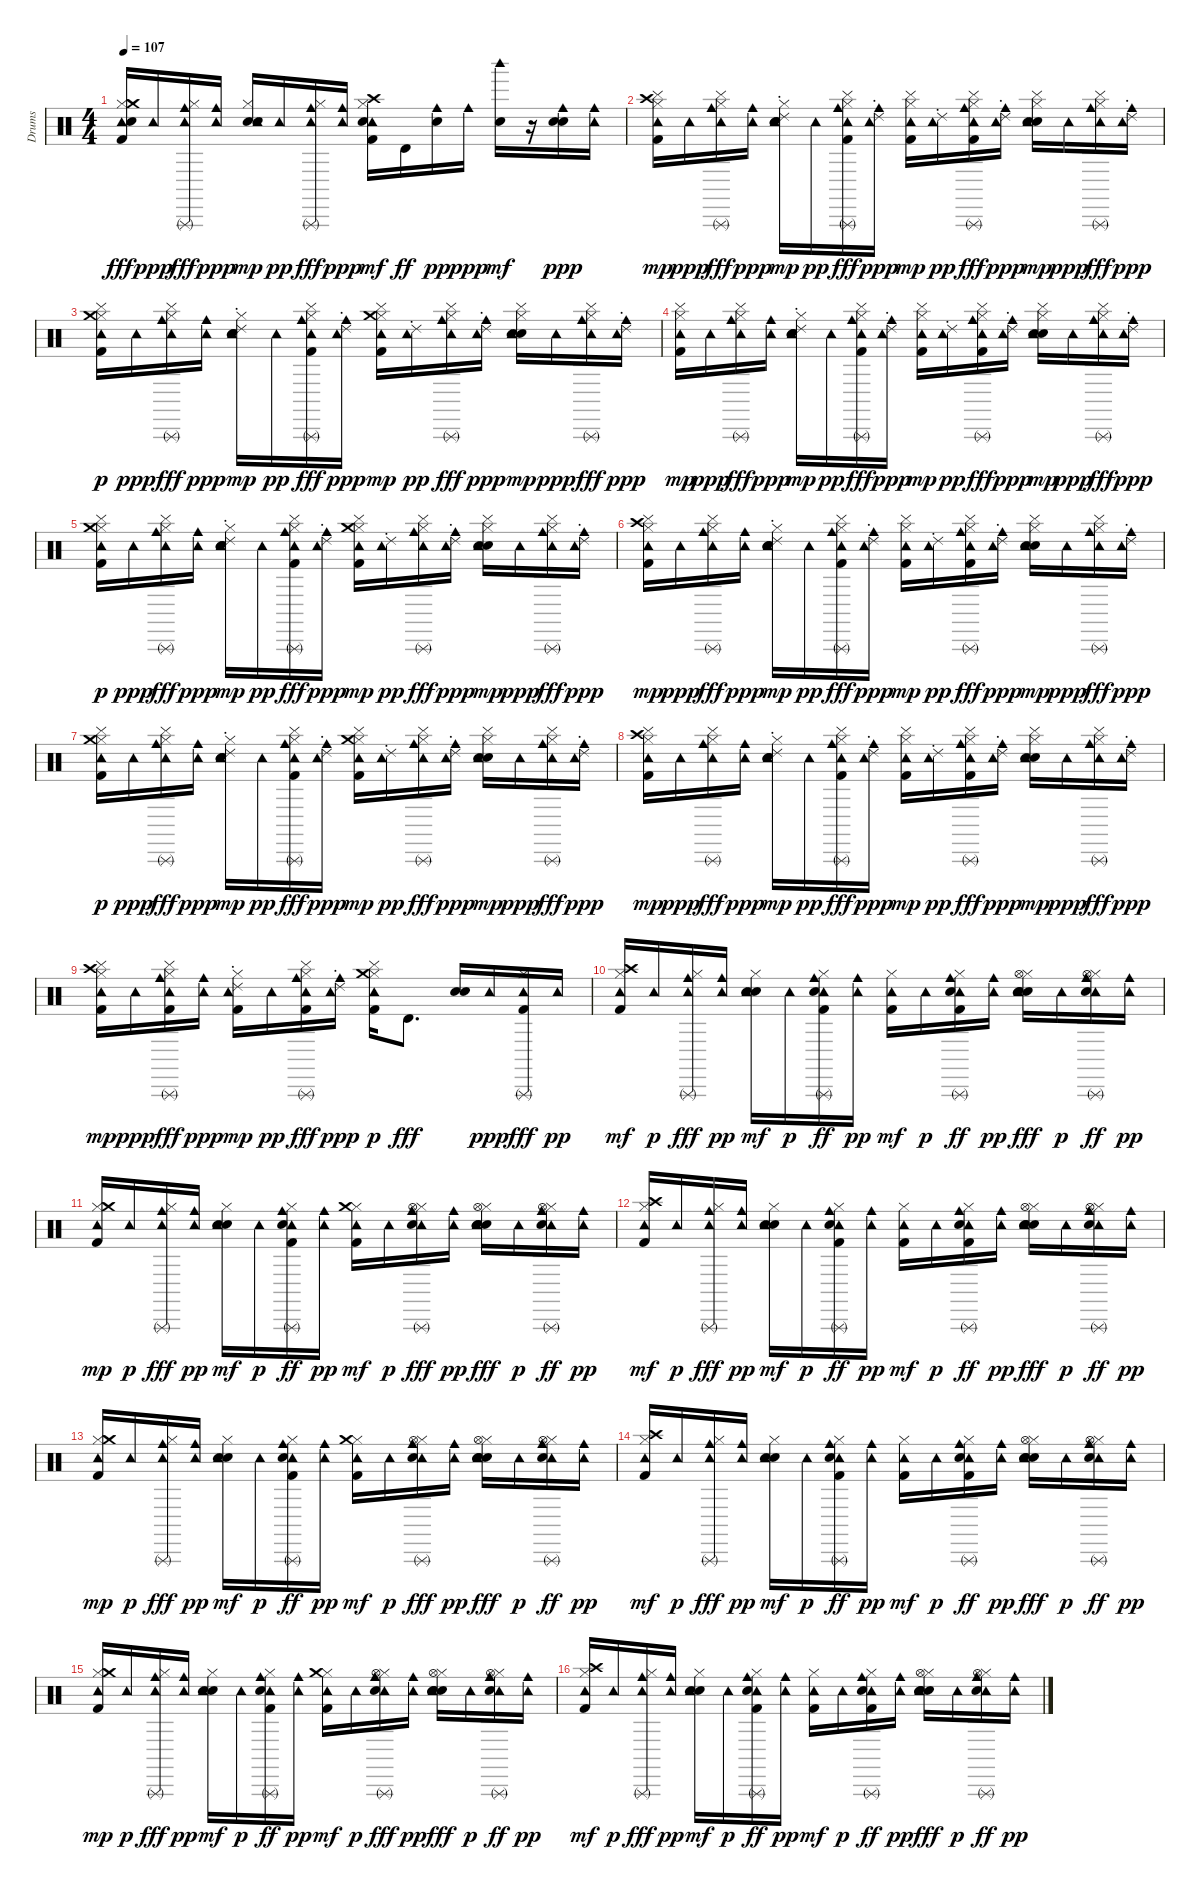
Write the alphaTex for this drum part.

\track ("Drums" "Drums") {instrument percussion}
\staff {score}
\articulation defaults
\ts (4 4)
\tempo 107
\clef neutral
\ks c
("Kick (hit) 2" "Hi-Hat (closed)" "Tambourine (hit)" "Crash medium (hit)" "Snare (hit)").16{dy fff} "Tambourine (hit)".16{dy ppp} ("Hi-Hat (closed)" "Tambourine (hit)" "Cowbell medium (hit)" "Triangle (rnute)").16{dy fff} ("Tambourine (hit)" "Cowbell medium (hit)").16{dy ppp} ("Hand Clap (hit)" "Electric Snare (hit)" "Hi-Hat (closed)" "Tambourine (hit)").16{dy mp} "Tambourine (hit)".16{dy pp} ("Hi-Hat (closed)" "Tambourine (hit)" "Cowbell medium (hit)" "Triangle (rnute)").16{dy fff} ("Tambourine (hit)" "Cowbell medium (hit)").16{dy ppp} ("Kick (hit) 2" "Hi-Hat (closed)" "Crash high (hit)" "Tambourine (hit)" "Snare (hit)").16{dy mf} "Timbale high (hit)".16{dy ff} ("Cowbell medium (hit)" "Snare (hit)").16{dy pp} "Cowbell medium (hit)".16{dy ppp} ("Hand Clap (hit)" "Woodblock high (hit)").16{dy mf} r.16 ("Cowbell medium (hit)" "Snare (hit)" "Snare (hit)").16{dy ppp} ("Tambourine (hit)" "Cowbell medium (hit)").16 |
("Cymbal (hit)" "Kick (hit) 2" "Hi-Hat (closed)" "Crash high (hit)" "Tambourine (hit)").16{dy mp} "Tambourine (hit)".16{dy ppp} ("Cymbal (hit)" "Hi-Hat (closed)" "Tambourine (hit)" "Cowbell medium (hit)" "Triangle (rnute)").16{dy fff} ("Tambourine (hit)" "Cowbell medium (hit)").16{dy ppp} ("Ride (choke) 2" "Hand Clap (hit)" "Electric Snare (hit)" "Hi-Hat (closed)" "Tambourine (hit)").16{dy mp} "Tambourine (hit)".16{dy pp} ("Cymbal (hit)" "Kick (hit) 2" "Hi-Hat (closed)" "Tambourine (hit)" "Cowbell medium (hit)" "Triangle (rnute)").16{dy fff} ("Ride (choke) 2" "Tambourine (hit)" "Cowbell medium (hit)").16{dy ppp} ("Cymbal (hit)" "Kick (hit) 2" "Hi-Hat (closed)" "Tambourine (hit)").16{dy mp} ("Ride (choke) 2" "Tambourine (hit)").16{dy pp} ("Cymbal (hit)" "Kick (hit) 2" "Hi-Hat (closed)" "Tambourine (hit)" "Cowbell medium (hit)" "Triangle (rnute)").16{dy fff} ("Ride (choke) 2" "Tambourine (hit)" "Cowbell medium (hit)").16{dy ppp} ("Cymbal (hit)" "Hand Clap (hit)" "Electric Snare (hit)" "Hi-Hat (closed)" "Tambourine (hit)").16{dy mp} "Tambourine (hit)".16{dy ppp} ("Cymbal (hit)" "Hi-Hat (closed)" "Tambourine (hit)" "Cowbell medium (hit)" "Triangle (rnute)").16{dy fff} ("Ride (choke) 2" "Tambourine (hit)" "Cowbell medium (hit)").16{dy ppp} |
("Cymbal (hit)" "Kick (hit) 2" "Hi-Hat (closed)" "Tambourine (hit)" "Crash medium (hit)").16{dy p} "Tambourine (hit)".16{dy ppp} ("Cymbal (hit)" "Hi-Hat (closed)" "Tambourine (hit)" "Cowbell medium (hit)" "Triangle (rnute)").16{dy fff} ("Tambourine (hit)" "Cowbell medium (hit)").16{dy ppp} ("Ride (choke) 2" "Hand Clap (hit)" "Electric Snare (hit)" "Hi-Hat (closed)" "Tambourine (hit)").16{dy mp} "Tambourine (hit)".16{dy pp} ("Cymbal (hit)" "Kick (hit) 2" "Hi-Hat (closed)" "Tambourine (hit)" "Cowbell medium (hit)" "Triangle (rnute)").16{dy fff} ("Ride (choke) 2" "Tambourine (hit)" "Cowbell medium (hit)").16{dy ppp} ("Cymbal (hit)" "Kick (hit) 2" "Hi-Hat (closed)" "Tambourine (hit)" "Crash medium (hit)").16{dy mp} ("Ride (choke) 2" "Tambourine (hit)").16{dy pp} ("Cymbal (hit)" "Hi-Hat (closed)" "Tambourine (hit)" "Cowbell medium (hit)" "Triangle (rnute)").16{dy fff} ("Ride (choke) 2" "Tambourine (hit)" "Cowbell medium (hit)").16{dy ppp} ("Cymbal (hit)" "Hand Clap (hit)" "Electric Snare (hit)" "Hi-Hat (closed)" "Tambourine (hit)").16{dy mp} "Tambourine (hit)".16{dy ppp} ("Cymbal (hit)" "Hi-Hat (closed)" "Tambourine (hit)" "Cowbell medium (hit)" "Triangle (rnute)").16{dy fff} ("Ride (choke) 2" "Tambourine (hit)" "Cowbell medium (hit)").16{dy ppp} |
("Cymbal (hit)" "Kick (hit) 2" "Hi-Hat (closed)" "Tambourine (hit)").16{dy mp} "Tambourine (hit)".16{dy ppp} ("Cymbal (hit)" "Hi-Hat (closed)" "Tambourine (hit)" "Cowbell medium (hit)" "Triangle (rnute)").16{dy fff} ("Tambourine (hit)" "Cowbell medium (hit)").16{dy ppp} ("Ride (choke) 2" "Hand Clap (hit)" "Electric Snare (hit)" "Hi-Hat (closed)" "Tambourine (hit)").16{dy mp} "Tambourine (hit)".16{dy pp} ("Cymbal (hit)" "Kick (hit) 2" "Hi-Hat (closed)" "Tambourine (hit)" "Cowbell medium (hit)" "Triangle (rnute)").16{dy fff} ("Ride (choke) 2" "Tambourine (hit)" "Cowbell medium (hit)").16{dy ppp} ("Cymbal (hit)" "Kick (hit) 2" "Hi-Hat (closed)" "Tambourine (hit)").16{dy mp} ("Ride (choke) 2" "Tambourine (hit)").16{dy pp} ("Cymbal (hit)" "Kick (hit) 2" "Hi-Hat (closed)" "Tambourine (hit)" "Cowbell medium (hit)" "Triangle (rnute)").16{dy fff} ("Ride (choke) 2" "Tambourine (hit)" "Cowbell medium (hit)").16{dy ppp} ("Cymbal (hit)" "Hand Clap (hit)" "Electric Snare (hit)" "Hi-Hat (closed)" "Tambourine (hit)").16{dy mp} "Tambourine (hit)".16{dy ppp} ("Cymbal (hit)" "Hi-Hat (closed)" "Tambourine (hit)" "Cowbell medium (hit)" "Triangle (rnute)").16{dy fff} ("Ride (choke) 2" "Tambourine (hit)" "Cowbell medium (hit)").16{dy ppp} |
("Cymbal (hit)" "Kick (hit) 2" "Hi-Hat (closed)" "Tambourine (hit)" "Crash medium (hit)").16{dy p} "Tambourine (hit)".16{dy ppp} ("Cymbal (hit)" "Hi-Hat (closed)" "Tambourine (hit)" "Cowbell medium (hit)" "Triangle (rnute)").16{dy fff} ("Tambourine (hit)" "Cowbell medium (hit)").16{dy ppp} ("Ride (choke) 2" "Hand Clap (hit)" "Electric Snare (hit)" "Hi-Hat (closed)" "Tambourine (hit)").16{dy mp} "Tambourine (hit)".16{dy pp} ("Cymbal (hit)" "Kick (hit) 2" "Hi-Hat (closed)" "Tambourine (hit)" "Cowbell medium (hit)" "Triangle (rnute)").16{dy fff} ("Ride (choke) 2" "Tambourine (hit)" "Cowbell medium (hit)").16{dy ppp} ("Cymbal (hit)" "Kick (hit) 2" "Hi-Hat (closed)" "Tambourine (hit)" "Crash medium (hit)").16{dy mp} ("Ride (choke) 2" "Tambourine (hit)").16{dy pp} ("Cymbal (hit)" "Hi-Hat (closed)" "Tambourine (hit)" "Cowbell medium (hit)" "Triangle (rnute)").16{dy fff} ("Ride (choke) 2" "Tambourine (hit)" "Cowbell medium (hit)").16{dy ppp} ("Cymbal (hit)" "Hand Clap (hit)" "Electric Snare (hit)" "Hi-Hat (closed)" "Tambourine (hit)").16{dy mp} "Tambourine (hit)".16{dy ppp} ("Cymbal (hit)" "Hi-Hat (closed)" "Tambourine (hit)" "Cowbell medium (hit)" "Triangle (rnute)").16{dy fff} ("Ride (choke) 2" "Tambourine (hit)" "Cowbell medium (hit)").16{dy ppp} |
("Cymbal (hit)" "Kick (hit) 2" "Hi-Hat (closed)" "Crash high (hit)" "Tambourine (hit)").16{dy mp} "Tambourine (hit)".16{dy ppp} ("Cymbal (hit)" "Hi-Hat (closed)" "Tambourine (hit)" "Cowbell medium (hit)" "Triangle (rnute)").16{dy fff} ("Tambourine (hit)" "Cowbell medium (hit)").16{dy ppp} ("Ride (choke) 2" "Hand Clap (hit)" "Electric Snare (hit)" "Hi-Hat (closed)" "Tambourine (hit)").16{dy mp} "Tambourine (hit)".16{dy pp} ("Cymbal (hit)" "Kick (hit) 2" "Hi-Hat (closed)" "Tambourine (hit)" "Cowbell medium (hit)" "Triangle (rnute)").16{dy fff} ("Ride (choke) 2" "Tambourine (hit)" "Cowbell medium (hit)").16{dy ppp} ("Cymbal (hit)" "Kick (hit) 2" "Hi-Hat (closed)" "Tambourine (hit)").16{dy mp} ("Ride (choke) 2" "Tambourine (hit)").16{dy pp} ("Cymbal (hit)" "Kick (hit) 2" "Hi-Hat (closed)" "Tambourine (hit)" "Cowbell medium (hit)" "Triangle (rnute)").16{dy fff} ("Ride (choke) 2" "Tambourine (hit)" "Cowbell medium (hit)").16{dy ppp} ("Cymbal (hit)" "Hand Clap (hit)" "Electric Snare (hit)" "Hi-Hat (closed)" "Tambourine (hit)").16{dy mp} "Tambourine (hit)".16{dy ppp} ("Cymbal (hit)" "Hi-Hat (closed)" "Tambourine (hit)" "Cowbell medium (hit)" "Triangle (rnute)").16{dy fff} ("Ride (choke) 2" "Tambourine (hit)" "Cowbell medium (hit)").16{dy ppp} |
("Cymbal (hit)" "Kick (hit) 2" "Hi-Hat (closed)" "Tambourine (hit)" "Crash medium (hit)").16{dy p} "Tambourine (hit)".16{dy ppp} ("Cymbal (hit)" "Hi-Hat (closed)" "Tambourine (hit)" "Cowbell medium (hit)" "Triangle (rnute)").16{dy fff} ("Tambourine (hit)" "Cowbell medium (hit)").16{dy ppp} ("Ride (choke) 2" "Hand Clap (hit)" "Electric Snare (hit)" "Hi-Hat (closed)" "Tambourine (hit)").16{dy mp} "Tambourine (hit)".16{dy pp} ("Cymbal (hit)" "Kick (hit) 2" "Hi-Hat (closed)" "Tambourine (hit)" "Cowbell medium (hit)" "Triangle (rnute)").16{dy fff} ("Ride (choke) 2" "Tambourine (hit)" "Cowbell medium (hit)").16{dy ppp} ("Cymbal (hit)" "Kick (hit) 2" "Hi-Hat (closed)" "Tambourine (hit)" "Crash medium (hit)").16{dy mp} ("Ride (choke) 2" "Tambourine (hit)").16{dy pp} ("Cymbal (hit)" "Hi-Hat (closed)" "Tambourine (hit)" "Cowbell medium (hit)" "Triangle (rnute)").16{dy fff} ("Ride (choke) 2" "Tambourine (hit)" "Cowbell medium (hit)").16{dy ppp} ("Cymbal (hit)" "Hand Clap (hit)" "Electric Snare (hit)" "Hi-Hat (closed)" "Tambourine (hit)").16{dy mp} "Tambourine (hit)".16{dy ppp} ("Cymbal (hit)" "Hi-Hat (closed)" "Tambourine (hit)" "Cowbell medium (hit)" "Triangle (rnute)").16{dy fff} ("Ride (choke) 2" "Tambourine (hit)" "Cowbell medium (hit)").16{dy ppp} |
("Cymbal (hit)" "Kick (hit) 2" "Hi-Hat (closed)" "Crash high (hit)" "Tambourine (hit)").16{dy mp} "Tambourine (hit)".16{dy ppp} ("Cymbal (hit)" "Hi-Hat (closed)" "Tambourine (hit)" "Cowbell medium (hit)" "Triangle (rnute)").16{dy fff} ("Tambourine (hit)" "Cowbell medium (hit)").16{dy ppp} ("Ride (choke) 2" "Hand Clap (hit)" "Electric Snare (hit)" "Hi-Hat (closed)" "Tambourine (hit)").16{dy mp} "Tambourine (hit)".16{dy pp} ("Cymbal (hit)" "Kick (hit) 2" "Hi-Hat (closed)" "Tambourine (hit)" "Cowbell medium (hit)" "Triangle (rnute)").16{dy fff} ("Ride (choke) 2" "Tambourine (hit)" "Cowbell medium (hit)").16{dy ppp} ("Cymbal (hit)" "Kick (hit) 2" "Hi-Hat (closed)" "Tambourine (hit)").16{dy mp} ("Ride (choke) 2" "Tambourine (hit)").16{dy pp} ("Cymbal (hit)" "Kick (hit) 2" "Hi-Hat (closed)" "Tambourine (hit)" "Cowbell medium (hit)" "Triangle (rnute)").16{dy fff} ("Ride (choke) 2" "Tambourine (hit)" "Cowbell medium (hit)").16{dy ppp} ("Cymbal (hit)" "Hand Clap (hit)" "Electric Snare (hit)" "Hi-Hat (closed)" "Tambourine (hit)").16{dy mp} "Tambourine (hit)".16{dy ppp} ("Cymbal (hit)" "Hi-Hat (closed)" "Tambourine (hit)" "Cowbell medium (hit)" "Triangle (rnute)").16{dy fff} ("Ride (choke) 2" "Tambourine (hit)" "Cowbell medium (hit)").16{dy ppp} |
("Cymbal (hit)" "Kick (hit) 2" "Hi-Hat (closed)" "Crash high (hit)" "Tambourine (hit)").16{dy mp} "Tambourine (hit)".16{dy ppp} ("Cymbal (hit)" "Kick (hit) 2" "Hi-Hat (closed)" "Tambourine (hit)" "Cowbell medium (hit)" "Triangle (rnute)").16{dy fff} ("Tambourine (hit)" "Cowbell medium (hit)").16{dy ppp} ("Ride (choke) 2" "Kick (hit) 2" "Hi-Hat (closed)" "Tambourine (hit)").16{dy mp} "Tambourine (hit)".16{dy pp} ("Cymbal (hit)" "Kick (hit) 2" "Hi-Hat (closed)" "Tambourine (hit)" "Cowbell medium (hit)" "Triangle (rnute)").16{dy fff} ("Ride (choke) 2" "Tambourine (hit)" "Cowbell medium (hit)").16{dy ppp} ("Cymbal (hit)" "Kick (hit) 2" "Hi-Hat (closed)" "Tambourine (hit)" "Crash medium (hit)").16{dy p} "Timbale high (hit)".8{d dy fff} ("Hand Clap (hit)" "Electric Snare (hit)").16 "Tambourine (hit)".16{dy ppp} ("Kick (hit) 2" "Hi-Hat (closed)" "Tambourine (hit)" "Triangle (rnute)").16{dy fff} "Tambourine (hit)".16{dy pp} |
("Kick (hit) 2" "Hi-Hat (closed)" "Crash high (hit)" "Tambourine (hit)").16{dy mf} "Tambourine (hit)".16{dy p} ("Hi-Hat (closed)" "Tambourine (hit)" "Cowbell medium (hit)" "Triangle (rnute)").16{dy fff} ("Tambourine (hit)" "Cowbell medium (hit)").16{dy pp} ("Hand Clap (hit)" "Electric Snare (hit)" "Hi-Hat (closed)" "Tambourine (hit)").16{dy mf} "Tambourine (hit)".16{dy p} ("Kick (hit) 2" "Hi-Hat (closed)" "Tambourine (hit)" "Cowbell medium (hit)" "Triangle (rnute)" "Metronome (bell)").16{dy ff} ("Tambourine (hit)" "Cowbell medium (hit)").16{dy pp} ("Kick (hit) 2" "Hi-Hat (closed)" "Tambourine (hit)").16{dy mf} "Tambourine (hit)".16{dy p} ("Kick (hit) 2" "Hi-Hat (closed)" "Tambourine (hit)" "Cowbell medium (hit)" "Triangle (rnute)" "Metronome (bell)").16{dy ff} ("Tambourine (hit)" "Cowbell medium (hit)").16{dy pp} ("Hand Clap (hit)" "Electric Snare (hit)" "Hi-Hat (closed)" "Tambourine (hit)" "Metronome (bell)" "Hi-Hat (open)").16{dy fff} "Tambourine (hit)".16{dy p} ("Hi-Hat (closed)" "Tambourine (hit)" "Cowbell medium (hit)" "Triangle (rnute)" "Metronome (bell)" "Hi-Hat (open)").16{dy ff} ("Tambourine (hit)" "Cowbell medium (hit)").16{dy pp} |
("Kick (hit) 2" "Hi-Hat (closed)" "Tambourine (hit)" "Crash medium (hit)").16{dy mp} "Tambourine (hit)".16{dy p} ("Hi-Hat (closed)" "Tambourine (hit)" "Cowbell medium (hit)" "Triangle (rnute)").16{dy fff} ("Tambourine (hit)" "Cowbell medium (hit)").16{dy pp} ("Hand Clap (hit)" "Electric Snare (hit)" "Hi-Hat (closed)" "Tambourine (hit)").16{dy mf} "Tambourine (hit)".16{dy p} ("Kick (hit) 2" "Hi-Hat (closed)" "Tambourine (hit)" "Cowbell medium (hit)" "Triangle (rnute)" "Metronome (bell)").16{dy ff} ("Tambourine (hit)" "Cowbell medium (hit)").16{dy pp} ("Kick (hit) 2" "Hi-Hat (closed)" "Tambourine (hit)" "Crash medium (hit)").16{dy mf} "Tambourine (hit)".16{dy p} ("Hi-Hat (closed)" "Tambourine (hit)" "Cowbell medium (hit)" "Triangle (rnute)" "Metronome (bell)" "Hi-Hat (open)").16{dy fff} ("Tambourine (hit)" "Cowbell medium (hit)").16{dy pp} ("Hand Clap (hit)" "Electric Snare (hit)" "Hi-Hat (closed)" "Tambourine (hit)" "Metronome (bell)" "Hi-Hat (open)").16{dy fff} "Tambourine (hit)".16{dy p} ("Hi-Hat (closed)" "Tambourine (hit)" "Cowbell medium (hit)" "Triangle (rnute)" "Metronome (bell)" "Hi-Hat (open)").16{dy ff} ("Tambourine (hit)" "Cowbell medium (hit)").16{dy pp} |
("Kick (hit) 2" "Hi-Hat (closed)" "Crash high (hit)" "Tambourine (hit)").16{dy mf} "Tambourine (hit)".16{dy p} ("Hi-Hat (closed)" "Tambourine (hit)" "Cowbell medium (hit)" "Triangle (rnute)").16{dy fff} ("Tambourine (hit)" "Cowbell medium (hit)").16{dy pp} ("Hand Clap (hit)" "Electric Snare (hit)" "Hi-Hat (closed)" "Tambourine (hit)").16{dy mf} "Tambourine (hit)".16{dy p} ("Kick (hit) 2" "Hi-Hat (closed)" "Tambourine (hit)" "Cowbell medium (hit)" "Triangle (rnute)" "Metronome (bell)").16{dy ff} ("Tambourine (hit)" "Cowbell medium (hit)").16{dy pp} ("Kick (hit) 2" "Hi-Hat (closed)" "Tambourine (hit)").16{dy mf} "Tambourine (hit)".16{dy p} ("Kick (hit) 2" "Hi-Hat (closed)" "Tambourine (hit)" "Cowbell medium (hit)" "Triangle (rnute)" "Metronome (bell)").16{dy ff} ("Tambourine (hit)" "Cowbell medium (hit)").16{dy pp} ("Hand Clap (hit)" "Electric Snare (hit)" "Hi-Hat (closed)" "Tambourine (hit)" "Metronome (bell)" "Hi-Hat (open)").16{dy fff} "Tambourine (hit)".16{dy p} ("Hi-Hat (closed)" "Tambourine (hit)" "Cowbell medium (hit)" "Triangle (rnute)" "Metronome (bell)" "Hi-Hat (open)").16{dy ff} ("Tambourine (hit)" "Cowbell medium (hit)").16{dy pp} |
("Kick (hit) 2" "Hi-Hat (closed)" "Tambourine (hit)" "Crash medium (hit)").16{dy mp} "Tambourine (hit)".16{dy p} ("Hi-Hat (closed)" "Tambourine (hit)" "Cowbell medium (hit)" "Triangle (rnute)").16{dy fff} ("Tambourine (hit)" "Cowbell medium (hit)").16{dy pp} ("Hand Clap (hit)" "Electric Snare (hit)" "Hi-Hat (closed)" "Tambourine (hit)").16{dy mf} "Tambourine (hit)".16{dy p} ("Kick (hit) 2" "Hi-Hat (closed)" "Tambourine (hit)" "Cowbell medium (hit)" "Triangle (rnute)" "Metronome (bell)").16{dy ff} ("Tambourine (hit)" "Cowbell medium (hit)").16{dy pp} ("Kick (hit) 2" "Hi-Hat (closed)" "Tambourine (hit)" "Crash medium (hit)").16{dy mf} "Tambourine (hit)".16{dy p} ("Hi-Hat (closed)" "Tambourine (hit)" "Cowbell medium (hit)" "Triangle (rnute)" "Metronome (bell)" "Hi-Hat (open)").16{dy fff} ("Tambourine (hit)" "Cowbell medium (hit)").16{dy pp} ("Hand Clap (hit)" "Electric Snare (hit)" "Hi-Hat (closed)" "Tambourine (hit)" "Metronome (bell)" "Hi-Hat (open)").16{dy fff} "Tambourine (hit)".16{dy p} ("Hi-Hat (closed)" "Tambourine (hit)" "Cowbell medium (hit)" "Triangle (rnute)" "Metronome (bell)" "Hi-Hat (open)").16{dy ff} ("Tambourine (hit)" "Cowbell medium (hit)").16{dy pp} |
("Kick (hit) 2" "Hi-Hat (closed)" "Crash high (hit)" "Tambourine (hit)").16{dy mf} "Tambourine (hit)".16{dy p} ("Hi-Hat (closed)" "Tambourine (hit)" "Cowbell medium (hit)" "Triangle (rnute)").16{dy fff} ("Tambourine (hit)" "Cowbell medium (hit)").16{dy pp} ("Hand Clap (hit)" "Electric Snare (hit)" "Hi-Hat (closed)" "Tambourine (hit)").16{dy mf} "Tambourine (hit)".16{dy p} ("Kick (hit) 2" "Hi-Hat (closed)" "Tambourine (hit)" "Cowbell medium (hit)" "Triangle (rnute)" "Metronome (bell)").16{dy ff} ("Tambourine (hit)" "Cowbell medium (hit)").16{dy pp} ("Kick (hit) 2" "Hi-Hat (closed)" "Tambourine (hit)").16{dy mf} "Tambourine (hit)".16{dy p} ("Kick (hit) 2" "Hi-Hat (closed)" "Tambourine (hit)" "Cowbell medium (hit)" "Triangle (rnute)" "Metronome (bell)").16{dy ff} ("Tambourine (hit)" "Cowbell medium (hit)").16{dy pp} ("Hand Clap (hit)" "Electric Snare (hit)" "Hi-Hat (closed)" "Tambourine (hit)" "Metronome (bell)" "Hi-Hat (open)").16{dy fff} "Tambourine (hit)".16{dy p} ("Hi-Hat (closed)" "Tambourine (hit)" "Cowbell medium (hit)" "Triangle (rnute)" "Metronome (bell)" "Hi-Hat (open)").16{dy ff} ("Tambourine (hit)" "Cowbell medium (hit)").16{dy pp} |
("Kick (hit) 2" "Hi-Hat (closed)" "Tambourine (hit)" "Crash medium (hit)").16{dy mp} "Tambourine (hit)".16{dy p} ("Hi-Hat (closed)" "Tambourine (hit)" "Cowbell medium (hit)" "Triangle (rnute)").16{dy fff} ("Tambourine (hit)" "Cowbell medium (hit)").16{dy pp} ("Hand Clap (hit)" "Electric Snare (hit)" "Hi-Hat (closed)" "Tambourine (hit)").16{dy mf} "Tambourine (hit)".16{dy p} ("Kick (hit) 2" "Hi-Hat (closed)" "Tambourine (hit)" "Cowbell medium (hit)" "Triangle (rnute)" "Metronome (bell)").16{dy ff} ("Tambourine (hit)" "Cowbell medium (hit)").16{dy pp} ("Kick (hit) 2" "Hi-Hat (closed)" "Tambourine (hit)" "Crash medium (hit)").16{dy mf} "Tambourine (hit)".16{dy p} ("Hi-Hat (closed)" "Tambourine (hit)" "Cowbell medium (hit)" "Triangle (rnute)" "Metronome (bell)" "Hi-Hat (open)").16{dy fff} ("Tambourine (hit)" "Cowbell medium (hit)").16{dy pp} ("Hand Clap (hit)" "Electric Snare (hit)" "Hi-Hat (closed)" "Tambourine (hit)" "Metronome (bell)" "Hi-Hat (open)").16{dy fff} "Tambourine (hit)".16{dy p} ("Hi-Hat (closed)" "Tambourine (hit)" "Cowbell medium (hit)" "Triangle (rnute)" "Metronome (bell)" "Hi-Hat (open)").16{dy ff} ("Tambourine (hit)" "Cowbell medium (hit)").16{dy pp} |
("Kick (hit) 2" "Hi-Hat (closed)" "Crash high (hit)" "Tambourine (hit)").16{dy mf} "Tambourine (hit)".16{dy p} ("Hi-Hat (closed)" "Tambourine (hit)" "Cowbell medium (hit)" "Triangle (rnute)").16{dy fff} ("Tambourine (hit)" "Cowbell medium (hit)").16{dy pp} ("Hand Clap (hit)" "Electric Snare (hit)" "Hi-Hat (closed)" "Tambourine (hit)").16{dy mf} "Tambourine (hit)".16{dy p} ("Kick (hit) 2" "Hi-Hat (closed)" "Tambourine (hit)" "Cowbell medium (hit)" "Triangle (rnute)" "Metronome (bell)").16{dy ff} ("Tambourine (hit)" "Cowbell medium (hit)").16{dy pp} ("Kick (hit) 2" "Hi-Hat (closed)" "Tambourine (hit)").16{dy mf} "Tambourine (hit)".16{dy p} ("Kick (hit) 2" "Hi-Hat (closed)" "Tambourine (hit)" "Cowbell medium (hit)" "Triangle (rnute)" "Metronome (bell)").16{dy ff} ("Tambourine (hit)" "Cowbell medium (hit)").16{dy pp} ("Hand Clap (hit)" "Electric Snare (hit)" "Hi-Hat (closed)" "Tambourine (hit)" "Metronome (bell)" "Hi-Hat (open)").16{dy fff} "Tambourine (hit)".16{dy p} ("Hi-Hat (closed)" "Tambourine (hit)" "Cowbell medium (hit)" "Triangle (rnute)" "Metronome (bell)" "Hi-Hat (open)").16{dy ff} ("Tambourine (hit)" "Cowbell medium (hit)").16{dy pp}
